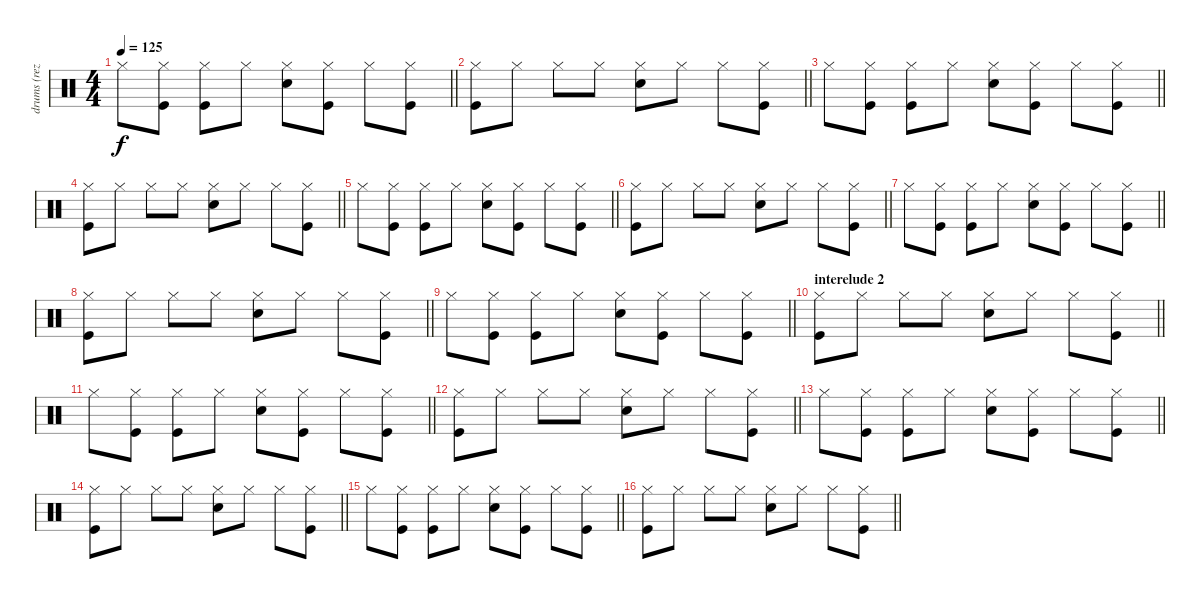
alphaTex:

\track ("drums (reza)" "drums (rez") {instrument percussion}
\staff {score}
\articulation defaults
\ts (4 4)
\tempo 125
\clef neutral
\barLineRight lightlight
\ks c "Hi-Hat (closed)".8{dy f}
("Hi-Hat (closed)" "Kick (hit)").8 ("Hi-Hat (closed)" "Kick (hit)").8 "Hi-Hat (closed)".8 ("Hi-Hat (closed)" "Snare (hit) 2").8 ("Hi-Hat (closed)" "Kick (hit)").8 "Hi-Hat (closed)".8 ("Hi-Hat (closed)" "Kick (hit)").8 |
\barLineRight lightlight
("Hi-Hat (closed)" "Kick (hit)").8 "Hi-Hat (closed)".8 "Hi-Hat (closed)".8 "Hi-Hat (closed)".8 ("Hi-Hat (closed)" "Snare (hit) 2").8 "Hi-Hat (closed)".8 "Hi-Hat (closed)".8 ("Hi-Hat (closed)" "Kick (hit)").8 |
\barLineRight lightlight "Hi-Hat (closed)".8
("Hi-Hat (closed)" "Kick (hit)").8 ("Hi-Hat (closed)" "Kick (hit)").8 "Hi-Hat (closed)".8 ("Hi-Hat (closed)" "Snare (hit) 2").8 ("Hi-Hat (closed)" "Kick (hit)").8 "Hi-Hat (closed)".8 ("Hi-Hat (closed)" "Kick (hit)").8 |
\barLineRight lightlight
("Hi-Hat (closed)" "Kick (hit)").8 "Hi-Hat (closed)".8 "Hi-Hat (closed)".8 "Hi-Hat (closed)".8 ("Hi-Hat (closed)" "Snare (hit) 2").8 "Hi-Hat (closed)".8 "Hi-Hat (closed)".8 ("Hi-Hat (closed)" "Kick (hit)").8 |
\barLineRight lightlight "Hi-Hat (closed)".8
("Hi-Hat (closed)" "Kick (hit)").8 ("Hi-Hat (closed)" "Kick (hit)").8 "Hi-Hat (closed)".8 ("Hi-Hat (closed)" "Snare (hit) 2").8 ("Hi-Hat (closed)" "Kick (hit)").8 "Hi-Hat (closed)".8 ("Hi-Hat (closed)" "Kick (hit)").8 |
\barLineRight lightlight
("Hi-Hat (closed)" "Kick (hit)").8 "Hi-Hat (closed)".8 "Hi-Hat (closed)".8 "Hi-Hat (closed)".8 ("Hi-Hat (closed)" "Snare (hit) 2").8 "Hi-Hat (closed)".8 "Hi-Hat (closed)".8 ("Hi-Hat (closed)" "Kick (hit)").8 |
\barLineRight lightlight "Hi-Hat (closed)".8
("Hi-Hat (closed)" "Kick (hit)").8 ("Hi-Hat (closed)" "Kick (hit)").8 "Hi-Hat (closed)".8 ("Hi-Hat (closed)" "Snare (hit) 2").8 ("Hi-Hat (closed)" "Kick (hit)").8 "Hi-Hat (closed)".8 ("Hi-Hat (closed)" "Kick (hit)").8 |
\barLineRight lightlight
("Hi-Hat (closed)" "Kick (hit)").8 "Hi-Hat (closed)".8 "Hi-Hat (closed)".8 "Hi-Hat (closed)".8 ("Hi-Hat (closed)" "Snare (hit) 2").8 "Hi-Hat (closed)".8 "Hi-Hat (closed)".8 ("Hi-Hat (closed)" "Kick (hit)").8 |
\barLineRight lightlight "Hi-Hat (closed)".8
("Hi-Hat (closed)" "Kick (hit)").8 ("Hi-Hat (closed)" "Kick (hit)").8 "Hi-Hat (closed)".8 ("Hi-Hat (closed)" "Snare (hit) 2").8 ("Hi-Hat (closed)" "Kick (hit)").8 "Hi-Hat (closed)".8 ("Hi-Hat (closed)" "Kick (hit)").8 |
\section ("" "interelude 2")
\barLineRight lightlight
("Hi-Hat (closed)" "Kick (hit)").8 "Hi-Hat (closed)".8 "Hi-Hat (closed)".8 "Hi-Hat (closed)".8 ("Hi-Hat (closed)" "Snare (hit) 2").8 "Hi-Hat (closed)".8 "Hi-Hat (closed)".8 ("Hi-Hat (closed)" "Kick (hit)").8 |
\barLineRight lightlight "Hi-Hat (closed)".8
("Hi-Hat (closed)" "Kick (hit)").8 ("Hi-Hat (closed)" "Kick (hit)").8 "Hi-Hat (closed)".8 ("Hi-Hat (closed)" "Snare (hit) 2").8 ("Hi-Hat (closed)" "Kick (hit)").8 "Hi-Hat (closed)".8 ("Hi-Hat (closed)" "Kick (hit)").8 |
\barLineRight lightlight
("Hi-Hat (closed)" "Kick (hit)").8 "Hi-Hat (closed)".8 "Hi-Hat (closed)".8 "Hi-Hat (closed)".8 ("Hi-Hat (closed)" "Snare (hit) 2").8 "Hi-Hat (closed)".8 "Hi-Hat (closed)".8 ("Hi-Hat (closed)" "Kick (hit)").8 |
\barLineRight lightlight "Hi-Hat (closed)".8
("Hi-Hat (closed)" "Kick (hit)").8 ("Hi-Hat (closed)" "Kick (hit)").8 "Hi-Hat (closed)".8 ("Hi-Hat (closed)" "Snare (hit) 2").8 ("Hi-Hat (closed)" "Kick (hit)").8 "Hi-Hat (closed)".8 ("Hi-Hat (closed)" "Kick (hit)").8 |
\barLineRight lightlight
("Hi-Hat (closed)" "Kick (hit)").8 "Hi-Hat (closed)".8 "Hi-Hat (closed)".8 "Hi-Hat (closed)".8 ("Hi-Hat (closed)" "Snare (hit) 2").8 "Hi-Hat (closed)".8 "Hi-Hat (closed)".8 ("Hi-Hat (closed)" "Kick (hit)").8 |
\barLineRight lightlight "Hi-Hat (closed)".8
("Hi-Hat (closed)" "Kick (hit)").8 ("Hi-Hat (closed)" "Kick (hit)").8 "Hi-Hat (closed)".8 ("Hi-Hat (closed)" "Snare (hit) 2").8 ("Hi-Hat (closed)" "Kick (hit)").8 "Hi-Hat (closed)".8 ("Hi-Hat (closed)" "Kick (hit)").8 |
\barLineRight lightlight
("Hi-Hat (closed)" "Kick (hit)").8 "Hi-Hat (closed)".8 "Hi-Hat (closed)".8 "Hi-Hat (closed)".8 ("Hi-Hat (closed)" "Snare (hit) 2").8 "Hi-Hat (closed)".8 "Hi-Hat (closed)".8 ("Hi-Hat (closed)" "Kick (hit)").8
